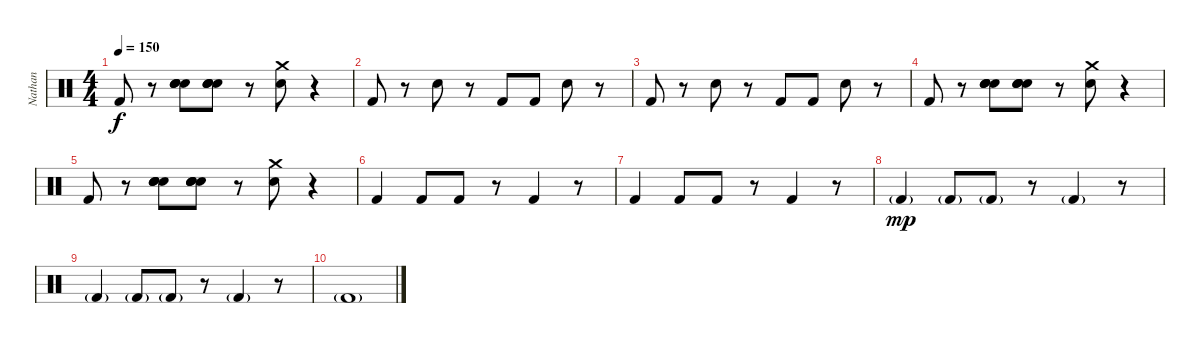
\track ("Nathan" "Nathan") {instrument percussion}
\staff {score}
\articulation defaults
\ts (4 4)
\tempo 150
\clef neutral
\ks c "Kick (hit) 2".8{dy f}
r.8 ("Hand Clap (hit)" "Hand Clap (hit)" "Hand Clap (hit)" "Hand Clap (hit)").8 ("Hand Clap (hit)" "Hand Clap (hit)" "Hand Clap (hit)" "Hand Clap (hit)").8 r.8 ("Crash medium (hit)" "Electric Snare (hit)").8 r.4 |
"Kick (hit) 2".8 r.8 "Electric Snare (hit)".8 r.8 "Kick (hit) 2".8 "Kick (hit) 2".8 "Electric Snare (hit)".8 r.8 |
"Kick (hit) 2".8 r.8 "Electric Snare (hit)".8 r.8 "Kick (hit) 2".8 "Kick (hit) 2".8 "Electric Snare (hit)".8 r.8 |
"Kick (hit) 2".8 r.8 ("Hand Clap (hit)" "Hand Clap (hit)" "Hand Clap (hit)" "Hand Clap (hit)").8 ("Hand Clap (hit)" "Hand Clap (hit)" "Hand Clap (hit)" "Hand Clap (hit)").8 r.8 ("Crash medium (hit)" "Electric Snare (hit)").8 r.4 |
"Kick (hit) 2".8 r.8 ("Hand Clap (hit)" "Hand Clap (hit)" "Hand Clap (hit)" "Hand Clap (hit)").8 ("Hand Clap (hit)" "Hand Clap (hit)" "Hand Clap (hit)" "Hand Clap (hit)").8 r.8 ("Crash medium (hit)" "Electric Snare (hit)").8 r.4 |
"Kick (hit) 2".4 "Kick (hit) 2".8 "Kick (hit) 2".8 r.8 "Kick (hit) 2".4 r.8 |
"Kick (hit) 2".4 "Kick (hit) 2".8 "Kick (hit) 2".8 r.8 "Kick (hit) 2".4 r.8 |
"Kick (hit) 2"{g}.4{dy mp} "Kick (hit) 2"{g}.8 "Kick (hit) 2"{g}.8 r.8 "Kick (hit) 2"{g}.4 r.8 |
"Kick (hit) 2"{g}.4 "Kick (hit) 2"{g}.8 "Kick (hit) 2"{g}.8 r.8 "Kick (hit) 2"{g}.4 r.8 |
"Kick (hit) 2"{g}.1
